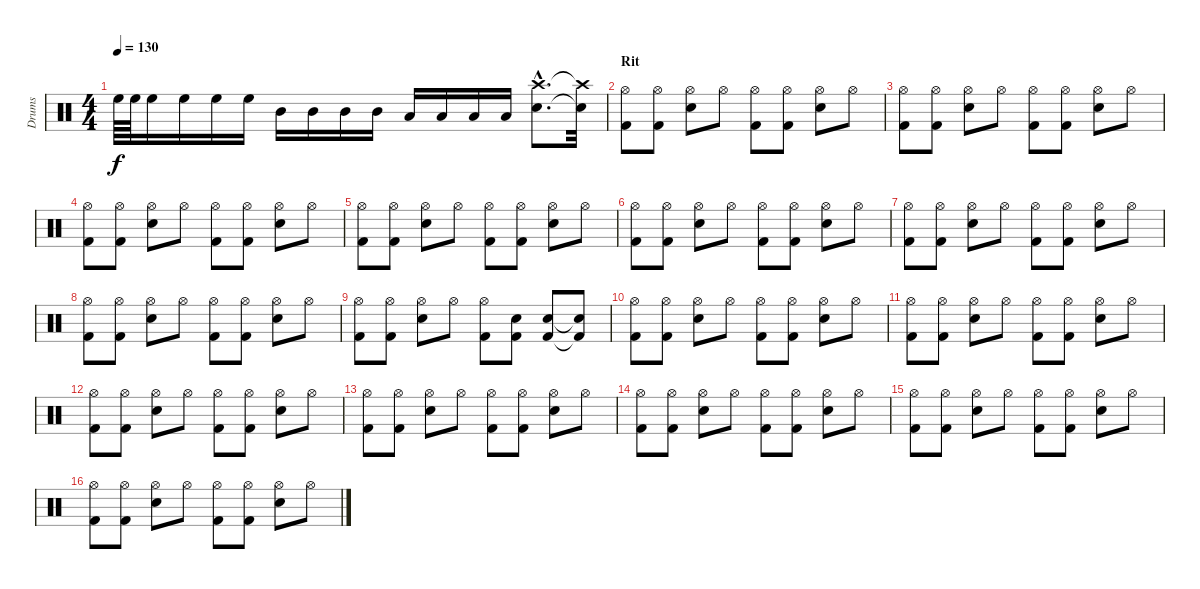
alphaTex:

\track ("Drums" "Drums") {instrument percussion}
\staff {score}
\articulation defaults
\ts (4 4)
\tempo 130
\clef neutral
\ks c "High Floor Tom (hit)".64{dy f} "High Floor Tom (hit)".64 "High Floor Tom (hit)".16 "High Floor Tom (hit)".16 "High Floor Tom (hit)".16 "High Floor Tom (hit)".16 "Mid Tom (hit)".16 "Mid Tom (hit)".16 "Mid Tom (hit)".16 "Mid Tom (hit)".16 "Low Tom (hit)".16 "Low Tom (hit)".16 "Low Tom (hit)".16 "Low Tom (hit)".16
("Crash high (hit)"{hac} "Snare (hit) 2"{hac}).8{d} ("Crash high (hit)"{t} "Snare (hit) 2"{t}).32 |
\section ("" "Rit")
("Hi-Hat (open)" "Kick (hit) 2").8 ("Hi-Hat (open)" "Kick (hit) 2").8 ("Hi-Hat (open)" "Snare (hit) 2").8 "Hi-Hat (open)".8 ("Hi-Hat (open)" "Kick (hit) 2").8 ("Hi-Hat (open)" "Kick (hit) 2").8 ("Hi-Hat (open)" "Snare (hit) 2").8 "Hi-Hat (open)".8 |
("Hi-Hat (open)" "Kick (hit) 2").8 ("Hi-Hat (open)" "Kick (hit) 2").8 ("Hi-Hat (open)" "Snare (hit) 2").8 "Hi-Hat (open)".8 ("Hi-Hat (open)" "Kick (hit) 2").8 ("Hi-Hat (open)" "Kick (hit) 2").8 ("Hi-Hat (open)" "Snare (hit) 2").8 "Hi-Hat (open)".8 |
("Hi-Hat (open)" "Kick (hit) 2").8 ("Hi-Hat (open)" "Kick (hit) 2").8 ("Hi-Hat (open)" "Snare (hit) 2").8 "Hi-Hat (open)".8 ("Hi-Hat (open)" "Kick (hit) 2").8 ("Hi-Hat (open)" "Kick (hit) 2").8 ("Hi-Hat (open)" "Snare (hit) 2").8 "Hi-Hat (open)".8 |
("Hi-Hat (open)" "Kick (hit) 2").8 ("Hi-Hat (open)" "Kick (hit) 2").8 ("Hi-Hat (open)" "Snare (hit) 2").8 "Hi-Hat (open)".8 ("Hi-Hat (open)" "Kick (hit) 2").8 ("Hi-Hat (open)" "Kick (hit) 2").8 ("Hi-Hat (open)" "Snare (hit) 2").8 "Hi-Hat (open)".8 |
("Hi-Hat (open)" "Kick (hit) 2").8 ("Hi-Hat (open)" "Kick (hit) 2").8 ("Hi-Hat (open)" "Snare (hit) 2").8 "Hi-Hat (open)".8 ("Hi-Hat (open)" "Kick (hit) 2").8 ("Hi-Hat (open)" "Kick (hit) 2").8 ("Hi-Hat (open)" "Snare (hit) 2").8 "Hi-Hat (open)".8 |
("Hi-Hat (open)" "Kick (hit) 2").8 ("Hi-Hat (open)" "Kick (hit) 2").8 ("Hi-Hat (open)" "Snare (hit) 2").8 "Hi-Hat (open)".8 ("Hi-Hat (open)" "Kick (hit) 2").8 ("Hi-Hat (open)" "Kick (hit) 2").8 ("Hi-Hat (open)" "Snare (hit) 2").8 "Hi-Hat (open)".8 |
("Hi-Hat (open)" "Kick (hit) 2").8 ("Hi-Hat (open)" "Kick (hit) 2").8 ("Hi-Hat (open)" "Snare (hit) 2").8 "Hi-Hat (open)".8 ("Hi-Hat (open)" "Kick (hit) 2").8 ("Hi-Hat (open)" "Kick (hit) 2").8 ("Hi-Hat (open)" "Snare (hit) 2").8 "Hi-Hat (open)".8 |
("Hi-Hat (open)" "Kick (hit) 2").8 ("Hi-Hat (open)" "Kick (hit) 2").8 ("Hi-Hat (open)" "Snare (hit) 2").8 "Hi-Hat (open)".8 ("Hi-Hat (open)" "Kick (hit) 2").8 ("Snare (hit) 2" "Kick (hit) 2").8 ("Snare (hit) 2" "Kick (hit) 2").8 ("Snare (hit) 2"{t} "Kick (hit) 2"{t}).8 |
("Hi-Hat (open)" "Kick (hit) 2").8 ("Hi-Hat (open)" "Kick (hit) 2").8 ("Hi-Hat (open)" "Snare (hit) 2").8 "Hi-Hat (open)".8 ("Hi-Hat (open)" "Kick (hit) 2").8 ("Hi-Hat (open)" "Kick (hit) 2").8 ("Hi-Hat (open)" "Snare (hit) 2").8 "Hi-Hat (open)".8 |
("Hi-Hat (open)" "Kick (hit) 2").8 ("Hi-Hat (open)" "Kick (hit) 2").8 ("Hi-Hat (open)" "Snare (hit) 2").8 "Hi-Hat (open)".8 ("Hi-Hat (open)" "Kick (hit) 2").8 ("Hi-Hat (open)" "Kick (hit) 2").8 ("Hi-Hat (open)" "Snare (hit) 2").8 "Hi-Hat (open)".8 |
("Hi-Hat (open)" "Kick (hit) 2").8 ("Hi-Hat (open)" "Kick (hit) 2").8 ("Hi-Hat (open)" "Snare (hit) 2").8 "Hi-Hat (open)".8 ("Hi-Hat (open)" "Kick (hit) 2").8 ("Hi-Hat (open)" "Kick (hit) 2").8 ("Hi-Hat (open)" "Snare (hit) 2").8 "Hi-Hat (open)".8 |
("Hi-Hat (open)" "Kick (hit) 2").8 ("Hi-Hat (open)" "Kick (hit) 2").8 ("Hi-Hat (open)" "Snare (hit) 2").8 "Hi-Hat (open)".8 ("Hi-Hat (open)" "Kick (hit) 2").8 ("Hi-Hat (open)" "Kick (hit) 2").8 ("Hi-Hat (open)" "Snare (hit) 2").8 "Hi-Hat (open)".8 |
("Hi-Hat (open)" "Kick (hit) 2").8 ("Hi-Hat (open)" "Kick (hit) 2").8 ("Hi-Hat (open)" "Snare (hit) 2").8 "Hi-Hat (open)".8 ("Hi-Hat (open)" "Kick (hit) 2").8 ("Hi-Hat (open)" "Kick (hit) 2").8 ("Hi-Hat (open)" "Snare (hit) 2").8 "Hi-Hat (open)".8 |
("Hi-Hat (open)" "Kick (hit) 2").8 ("Hi-Hat (open)" "Kick (hit) 2").8 ("Hi-Hat (open)" "Snare (hit) 2").8 "Hi-Hat (open)".8 ("Hi-Hat (open)" "Kick (hit) 2").8 ("Hi-Hat (open)" "Kick (hit) 2").8 ("Hi-Hat (open)" "Snare (hit) 2").8 "Hi-Hat (open)".8 |
("Hi-Hat (open)" "Kick (hit) 2").8 ("Hi-Hat (open)" "Kick (hit) 2").8 ("Hi-Hat (open)" "Snare (hit) 2").8 "Hi-Hat (open)".8 ("Hi-Hat (open)" "Kick (hit) 2").8 ("Hi-Hat (open)" "Kick (hit) 2").8 ("Hi-Hat (open)" "Snare (hit) 2").8 "Hi-Hat (open)".8
